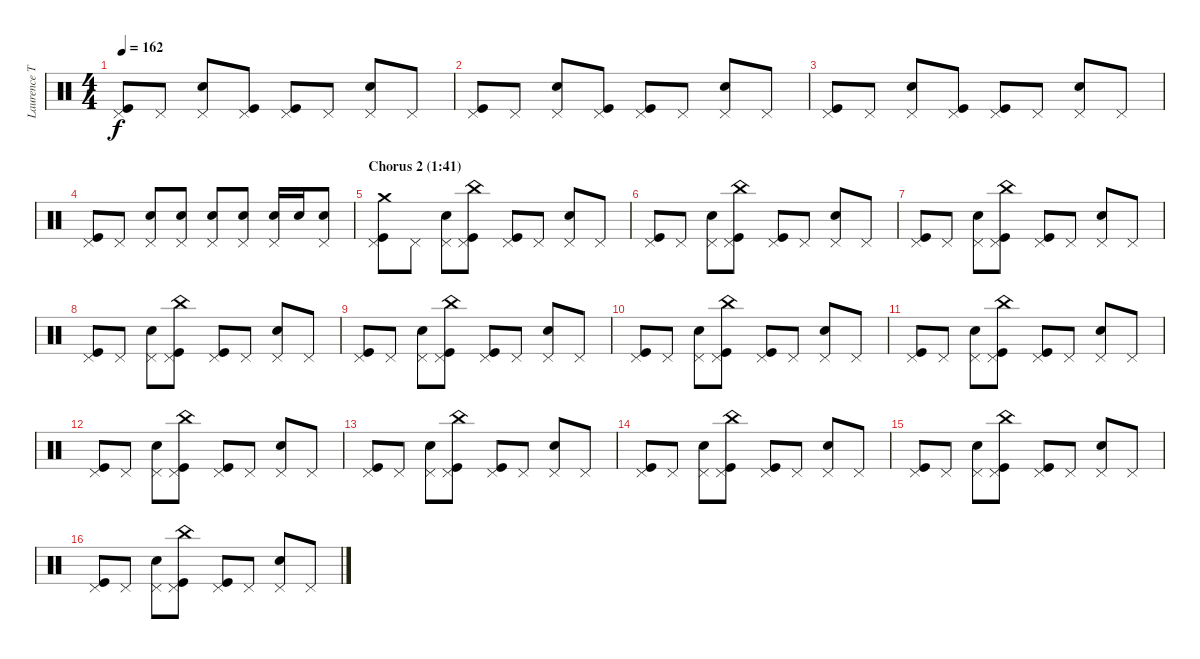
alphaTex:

\track ("Laurence Tolhurst (drums)" "Laurence T") {instrument percussion}
\staff {score}
\articulation defaults
\ts (4 4)
\tempo 162
\clef neutral
\ks c
("Pedal Hi-Hat (hit)" "Kick (hit)").8{dy f} "Pedal Hi-Hat (hit)".8 ("Pedal Hi-Hat (hit)" "Snare (hit) 2").8 ("Pedal Hi-Hat (hit)" "Kick (hit)").8 ("Pedal Hi-Hat (hit)" "Kick (hit)").8 "Pedal Hi-Hat (hit)".8 ("Pedal Hi-Hat (hit)" "Snare (hit) 2").8 "Pedal Hi-Hat (hit)".8 |
("Pedal Hi-Hat (hit)" "Kick (hit)").8 "Pedal Hi-Hat (hit)".8 ("Pedal Hi-Hat (hit)" "Snare (hit) 2").8 ("Pedal Hi-Hat (hit)" "Kick (hit)").8 ("Pedal Hi-Hat (hit)" "Kick (hit)").8 "Pedal Hi-Hat (hit)".8 ("Pedal Hi-Hat (hit)" "Snare (hit) 2").8 "Pedal Hi-Hat (hit)".8 |
("Pedal Hi-Hat (hit)" "Kick (hit)").8 "Pedal Hi-Hat (hit)".8 ("Pedal Hi-Hat (hit)" "Snare (hit) 2").8 ("Pedal Hi-Hat (hit)" "Kick (hit)").8 ("Pedal Hi-Hat (hit)" "Kick (hit)").8 "Pedal Hi-Hat (hit)".8 ("Pedal Hi-Hat (hit)" "Snare (hit) 2").8 "Pedal Hi-Hat (hit)".8 |
("Pedal Hi-Hat (hit)" "Kick (hit)").8 "Pedal Hi-Hat (hit)".8 ("Pedal Hi-Hat (hit)" "Snare (hit) 2").8 ("Pedal Hi-Hat (hit)" "Snare (hit) 2").8 ("Pedal Hi-Hat (hit)" "Snare (hit) 2").8 ("Pedal Hi-Hat (hit)" "Snare (hit) 2").8 ("Pedal Hi-Hat (hit)" "Snare (hit) 2").16 "Snare (hit) 2".16 ("Pedal Hi-Hat (hit)" "Snare (hit) 2").8 |
\section ("" "Chorus 2 (1:41)")
("Crash medium (hit)" "Pedal Hi-Hat (hit)" "Kick (hit)").8 "Pedal Hi-Hat (hit)".8 ("Pedal Hi-Hat (hit)" "Snare (hit) 2").8 ("China (hit)" "Pedal Hi-Hat (hit)" "Kick (hit)").8 ("Pedal Hi-Hat (hit)" "Kick (hit)").8 "Pedal Hi-Hat (hit)".8 ("Pedal Hi-Hat (hit)" "Snare (hit) 2").8 "Pedal Hi-Hat (hit)".8 |
("Pedal Hi-Hat (hit)" "Kick (hit)").8 "Pedal Hi-Hat (hit)".8 ("Pedal Hi-Hat (hit)" "Snare (hit) 2").8 ("China (hit)" "Pedal Hi-Hat (hit)" "Kick (hit)").8 ("Pedal Hi-Hat (hit)" "Kick (hit)").8 "Pedal Hi-Hat (hit)".8 ("Pedal Hi-Hat (hit)" "Snare (hit) 2").8 "Pedal Hi-Hat (hit)".8 |
("Pedal Hi-Hat (hit)" "Kick (hit)").8 "Pedal Hi-Hat (hit)".8 ("Pedal Hi-Hat (hit)" "Snare (hit) 2").8 ("China (hit)" "Pedal Hi-Hat (hit)" "Kick (hit)").8 ("Pedal Hi-Hat (hit)" "Kick (hit)").8 "Pedal Hi-Hat (hit)".8 ("Pedal Hi-Hat (hit)" "Snare (hit) 2").8 "Pedal Hi-Hat (hit)".8 |
("Pedal Hi-Hat (hit)" "Kick (hit)").8 "Pedal Hi-Hat (hit)".8 ("Pedal Hi-Hat (hit)" "Snare (hit) 2").8 ("China (hit)" "Pedal Hi-Hat (hit)" "Kick (hit)").8 ("Pedal Hi-Hat (hit)" "Kick (hit)").8 "Pedal Hi-Hat (hit)".8 ("Pedal Hi-Hat (hit)" "Snare (hit) 2").8 "Pedal Hi-Hat (hit)".8 |
("Pedal Hi-Hat (hit)" "Kick (hit)").8 "Pedal Hi-Hat (hit)".8 ("Pedal Hi-Hat (hit)" "Snare (hit) 2").8 ("China (hit)" "Pedal Hi-Hat (hit)" "Kick (hit)").8 ("Pedal Hi-Hat (hit)" "Kick (hit)").8 "Pedal Hi-Hat (hit)".8 ("Pedal Hi-Hat (hit)" "Snare (hit) 2").8 "Pedal Hi-Hat (hit)".8 |
("Pedal Hi-Hat (hit)" "Kick (hit)").8 "Pedal Hi-Hat (hit)".8 ("Pedal Hi-Hat (hit)" "Snare (hit) 2").8 ("China (hit)" "Pedal Hi-Hat (hit)" "Kick (hit)").8 ("Pedal Hi-Hat (hit)" "Kick (hit)").8 "Pedal Hi-Hat (hit)".8 ("Pedal Hi-Hat (hit)" "Snare (hit) 2").8 "Pedal Hi-Hat (hit)".8 |
("Pedal Hi-Hat (hit)" "Kick (hit)").8 "Pedal Hi-Hat (hit)".8 ("Pedal Hi-Hat (hit)" "Snare (hit) 2").8 ("China (hit)" "Pedal Hi-Hat (hit)" "Kick (hit)").8 ("Pedal Hi-Hat (hit)" "Kick (hit)").8 "Pedal Hi-Hat (hit)".8 ("Pedal Hi-Hat (hit)" "Snare (hit) 2").8 "Pedal Hi-Hat (hit)".8 |
("Pedal Hi-Hat (hit)" "Kick (hit)").8 "Pedal Hi-Hat (hit)".8 ("Pedal Hi-Hat (hit)" "Snare (hit) 2").8 ("China (hit)" "Pedal Hi-Hat (hit)" "Kick (hit)").8 ("Pedal Hi-Hat (hit)" "Kick (hit)").8 "Pedal Hi-Hat (hit)".8 ("Pedal Hi-Hat (hit)" "Snare (hit) 2").8 "Pedal Hi-Hat (hit)".8 |
("Pedal Hi-Hat (hit)" "Kick (hit)").8 "Pedal Hi-Hat (hit)".8 ("Pedal Hi-Hat (hit)" "Snare (hit) 2").8 ("China (hit)" "Pedal Hi-Hat (hit)" "Kick (hit)").8 ("Pedal Hi-Hat (hit)" "Kick (hit)").8 "Pedal Hi-Hat (hit)".8 ("Pedal Hi-Hat (hit)" "Snare (hit) 2").8 "Pedal Hi-Hat (hit)".8 |
("Pedal Hi-Hat (hit)" "Kick (hit)").8 "Pedal Hi-Hat (hit)".8 ("Pedal Hi-Hat (hit)" "Snare (hit) 2").8 ("China (hit)" "Pedal Hi-Hat (hit)" "Kick (hit)").8 ("Pedal Hi-Hat (hit)" "Kick (hit)").8 "Pedal Hi-Hat (hit)".8 ("Pedal Hi-Hat (hit)" "Snare (hit) 2").8 "Pedal Hi-Hat (hit)".8 |
("Pedal Hi-Hat (hit)" "Kick (hit)").8 "Pedal Hi-Hat (hit)".8 ("Pedal Hi-Hat (hit)" "Snare (hit) 2").8 ("China (hit)" "Pedal Hi-Hat (hit)" "Kick (hit)").8 ("Pedal Hi-Hat (hit)" "Kick (hit)").8 "Pedal Hi-Hat (hit)".8 ("Pedal Hi-Hat (hit)" "Snare (hit) 2").8 "Pedal Hi-Hat (hit)".8 |
("Pedal Hi-Hat (hit)" "Kick (hit)").8 "Pedal Hi-Hat (hit)".8 ("Pedal Hi-Hat (hit)" "Snare (hit) 2").8 ("China (hit)" "Pedal Hi-Hat (hit)" "Kick (hit)").8 ("Pedal Hi-Hat (hit)" "Kick (hit)").8 "Pedal Hi-Hat (hit)".8 ("Pedal Hi-Hat (hit)" "Snare (hit) 2").8 "Pedal Hi-Hat (hit)".8
